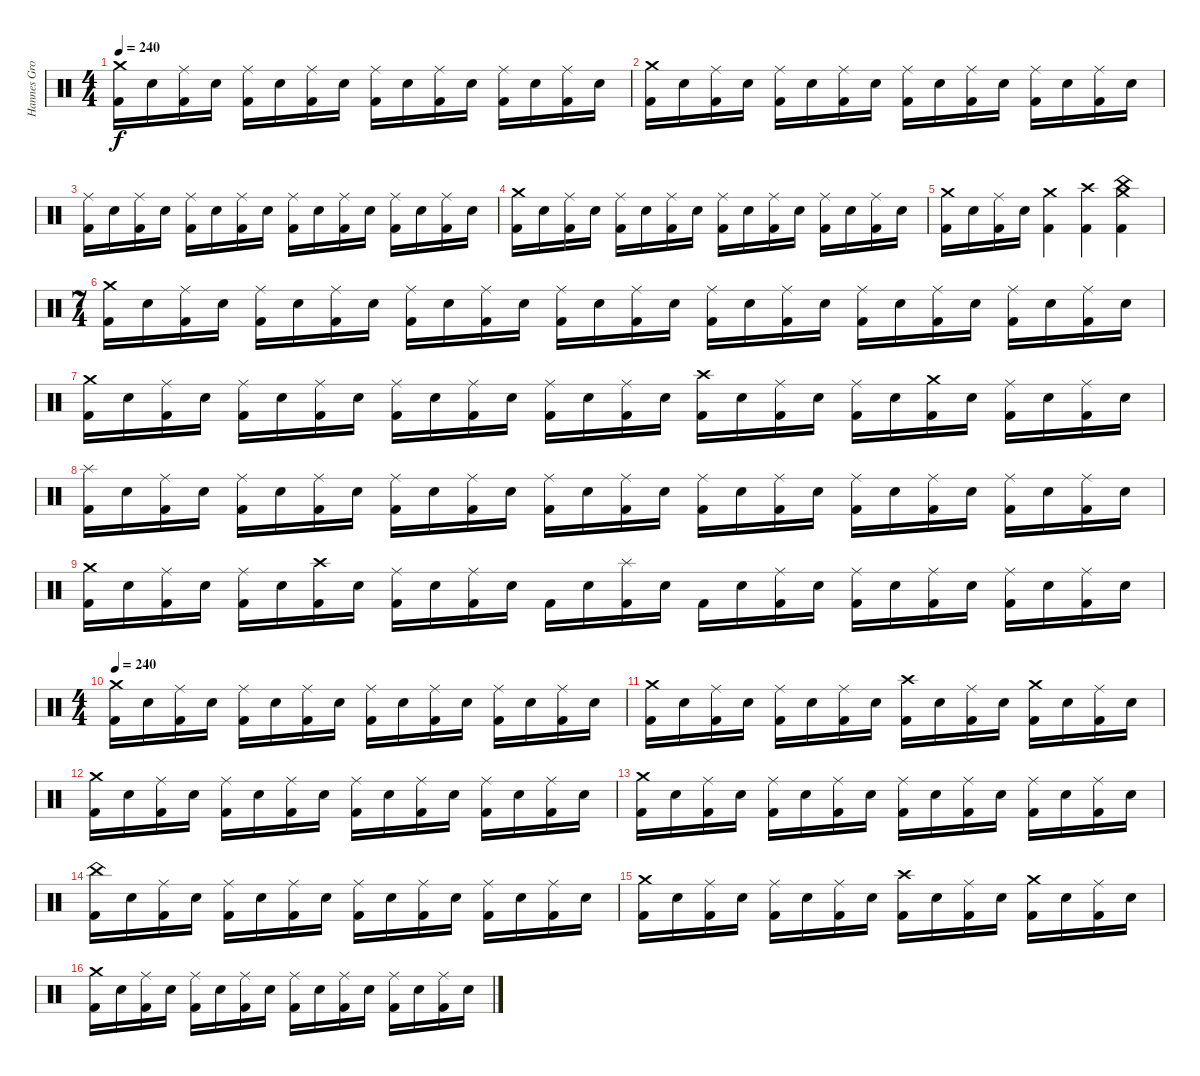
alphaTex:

\track ("Hannes Grossmann" "Hannes Gro") {instrument percussion}
\staff {score}
\articulation defaults
\ts (4 4)
\tempo 240
\clef neutral
\ks c
("Crash medium (hit)" "Kick (hit) 2").16{dy f} "Electric Snare (hit)".16 ("Ride (middle)" "Kick (hit) 2").16 "Electric Snare (hit)".16 ("Ride (middle)" "Kick (hit) 2").16 "Electric Snare (hit)".16 ("Ride (middle)" "Kick (hit) 2").16 "Electric Snare (hit)".16 ("Ride (middle)" "Kick (hit) 2").16 "Electric Snare (hit)".16 ("Ride (middle)" "Kick (hit) 2").16 "Electric Snare (hit)".16 ("Ride (middle)" "Kick (hit) 2").16 "Electric Snare (hit)".16 ("Ride (middle)" "Kick (hit) 2").16 "Electric Snare (hit)".16 |
("Crash medium (hit)" "Kick (hit) 2").16 "Electric Snare (hit)".16 ("Ride (middle)" "Kick (hit) 2").16 "Electric Snare (hit)".16 ("Ride (middle)" "Kick (hit) 2").16 "Electric Snare (hit)".16 ("Ride (middle)" "Kick (hit) 2").16 "Electric Snare (hit)".16 ("Ride (middle)" "Kick (hit) 2").16 "Electric Snare (hit)".16 ("Ride (middle)" "Kick (hit) 2").16 "Electric Snare (hit)".16 ("Ride (middle)" "Kick (hit) 2").16 "Electric Snare (hit)".16 ("Ride (middle)" "Kick (hit) 2").16 "Electric Snare (hit)".16 |
("Ride (middle)" "Kick (hit) 2").16 "Electric Snare (hit)".16 ("Ride (middle)" "Kick (hit) 2").16 "Electric Snare (hit)".16 ("Ride (middle)" "Kick (hit) 2").16 "Electric Snare (hit)".16 ("Ride (middle)" "Kick (hit) 2").16 "Electric Snare (hit)".16 ("Ride (middle)" "Kick (hit) 2").16 "Electric Snare (hit)".16 ("Ride (middle)" "Kick (hit) 2").16 "Electric Snare (hit)".16 ("Ride (middle)" "Kick (hit) 2").16 "Electric Snare (hit)".16 ("Ride (middle)" "Kick (hit) 2").16 "Electric Snare (hit)".16 |
("Crash medium (hit)" "Kick (hit) 2").16 "Electric Snare (hit)".16 ("Ride (middle)" "Kick (hit) 2").16 "Electric Snare (hit)".16 ("Ride (middle)" "Kick (hit) 2").16 "Electric Snare (hit)".16 ("Ride (middle)" "Kick (hit) 2").16 "Electric Snare (hit)".16 ("Ride (middle)" "Kick (hit) 2").16 "Electric Snare (hit)".16 ("Ride (middle)" "Kick (hit) 2").16 "Electric Snare (hit)".16 ("Ride (middle)" "Kick (hit) 2").16 "Electric Snare (hit)".16 ("Ride (middle)" "Kick (hit) 2").16 "Electric Snare (hit)".16 |
("Crash medium (hit)" "Kick (hit) 2").16 "Electric Snare (hit)".16 ("Ride (middle)" "Kick (hit) 2").16 "Electric Snare (hit)".16 ("Crash medium (hit)" "Kick (hit) 2").4 ("Crash high (hit)" "Kick (hit) 2").4 ("Crash medium (hit)" "China (hit)" "Kick (hit) 2").4 |
\ts (7 4)
("Crash medium (hit)" "Kick (hit) 2").16 "Electric Snare (hit)".16 ("Ride (middle)" "Kick (hit) 2").16 "Electric Snare (hit)".16 ("Ride (middle)" "Kick (hit) 2").16 "Electric Snare (hit)".16 ("Ride (middle)" "Kick (hit) 2").16 "Electric Snare (hit)".16 ("Ride (middle)" "Kick (hit) 2").16 "Electric Snare (hit)".16 ("Ride (middle)" "Kick (hit) 2").16 "Electric Snare (hit)".16 ("Ride (middle)" "Kick (hit) 2").16 "Electric Snare (hit)".16 ("Ride (middle)" "Kick (hit) 2").16 "Electric Snare (hit)".16 ("Ride (middle)" "Kick (hit) 2").16 "Electric Snare (hit)".16 ("Ride (middle)" "Kick (hit) 2").16 "Electric Snare (hit)".16 ("Ride (middle)" "Kick (hit) 2").16 "Electric Snare (hit)".16 ("Ride (middle)" "Kick (hit) 2").16 "Electric Snare (hit)".16 ("Ride (middle)" "Kick (hit) 2").16 "Electric Snare (hit)".16 ("Ride (middle)" "Kick (hit) 2").16 "Electric Snare (hit)".16 |
("Crash medium (hit)" "Kick (hit) 2").16 "Electric Snare (hit)".16 ("Ride (middle)" "Kick (hit) 2").16 "Electric Snare (hit)".16 ("Ride (middle)" "Kick (hit) 2").16 "Electric Snare (hit)".16 ("Ride (middle)" "Kick (hit) 2").16 "Electric Snare (hit)".16 ("Ride (middle)" "Kick (hit) 2").16 "Electric Snare (hit)".16 ("Ride (middle)" "Kick (hit) 2").16 "Electric Snare (hit)".16 ("Ride (middle)" "Kick (hit) 2").16 "Electric Snare (hit)".16 ("Ride (middle)" "Kick (hit) 2").16 "Electric Snare (hit)".16 ("Crash high (hit)" "Kick (hit) 2").16 "Electric Snare (hit)".16 ("Ride (middle)" "Kick (hit) 2").16 "Electric Snare (hit)".16 ("Ride (middle)" "Kick (hit) 2").16 "Electric Snare (hit)".16 ("Crash medium (hit)" "Kick (hit) 2").16 "Electric Snare (hit)".16 ("Ride (middle)" "Kick (hit) 2").16 "Electric Snare (hit)".16 ("Ride (middle)" "Kick (hit) 2").16 "Electric Snare (hit)".16 |
("Splash (hit)" "Kick (hit) 2").16 "Electric Snare (hit)".16 ("Ride (middle)" "Kick (hit) 2").16 "Electric Snare (hit)".16 ("Ride (middle)" "Kick (hit) 2").16 "Electric Snare (hit)".16 ("Ride (middle)" "Kick (hit) 2").16 "Electric Snare (hit)".16 ("Ride (middle)" "Kick (hit) 2").16 "Electric Snare (hit)".16 ("Ride (middle)" "Kick (hit) 2").16 "Electric Snare (hit)".16 ("Ride (middle)" "Kick (hit) 2").16 "Electric Snare (hit)".16 ("Ride (middle)" "Kick (hit) 2").16 "Electric Snare (hit)".16 ("Ride (middle)" "Kick (hit) 2").16 "Electric Snare (hit)".16 ("Ride (middle)" "Kick (hit) 2").16 "Electric Snare (hit)".16 ("Ride (middle)" "Kick (hit) 2").16 "Electric Snare (hit)".16 ("Ride (middle)" "Kick (hit) 2").16 "Electric Snare (hit)".16 ("Ride (middle)" "Kick (hit) 2").16 "Electric Snare (hit)".16 ("Ride (middle)" "Kick (hit) 2").16 "Electric Snare (hit)".16 |
("Crash medium (hit)" "Kick (hit) 2").16 "Electric Snare (hit)".16 ("Ride (middle)" "Kick (hit) 2").16 "Electric Snare (hit)".16 ("Ride (middle)" "Kick (hit) 2").16 "Electric Snare (hit)".16 ("Crash high (hit)" "Kick (hit) 2").16 "Electric Snare (hit)".16 ("Ride (middle)" "Kick (hit) 2").16 "Electric Snare (hit)".16 ("Ride (middle)" "Kick (hit) 2").16 "Electric Snare (hit)".16 "Kick (hit) 2".16 "Electric Snare (hit)".16 ("Splash (hit)" "Kick (hit) 2").16 "Electric Snare (hit)".16 "Kick (hit) 2".16 "Electric Snare (hit)".16 ("Ride (middle)" "Kick (hit) 2").16 "Electric Snare (hit)".16 ("Ride (middle)" "Kick (hit) 2").16 "Electric Snare (hit)".16 ("Ride (middle)" "Kick (hit) 2").16 "Electric Snare (hit)".16 ("Ride (middle)" "Kick (hit) 2").16 "Electric Snare (hit)".16 ("Ride (middle)" "Kick (hit) 2").16 "Electric Snare (hit)".16 |
\ts (4 4)
\tempo 240
("Crash medium (hit)" "Kick (hit) 2").16 "Electric Snare (hit)".16 ("Ride (middle)" "Kick (hit) 2").16 "Electric Snare (hit)".16 ("Ride (middle)" "Kick (hit) 2").16 "Electric Snare (hit)".16 ("Ride (middle)" "Kick (hit) 2").16 "Electric Snare (hit)".16 ("Ride (middle)" "Kick (hit) 2").16 "Electric Snare (hit)".16 ("Ride (middle)" "Kick (hit) 2").16 "Electric Snare (hit)".16 ("Ride (middle)" "Kick (hit) 2").16 "Electric Snare (hit)".16 ("Ride (middle)" "Kick (hit) 2").16 "Electric Snare (hit)".16 |
("Crash medium (hit)" "Kick (hit) 2").16 "Electric Snare (hit)".16 ("Ride (middle)" "Kick (hit) 2").16 "Electric Snare (hit)".16 ("Ride (middle)" "Kick (hit) 2").16 "Electric Snare (hit)".16 ("Ride (middle)" "Kick (hit) 2").16 "Electric Snare (hit)".16 ("Crash high (hit)" "Kick (hit) 2").16 "Electric Snare (hit)".16 ("Ride (middle)" "Kick (hit) 2").16 "Electric Snare (hit)".16 ("Crash medium (hit)" "Kick (hit) 2").16 "Electric Snare (hit)".16 ("Ride (middle)" "Kick (hit) 2").16 "Electric Snare (hit)".16 |
("Crash medium (hit)" "Kick (hit) 2").16 "Electric Snare (hit)".16 ("Ride (middle)" "Kick (hit) 2").16 "Electric Snare (hit)".16 ("Ride (middle)" "Kick (hit) 2").16 "Electric Snare (hit)".16 ("Ride (middle)" "Kick (hit) 2").16 "Electric Snare (hit)".16 ("Ride (middle)" "Kick (hit) 2").16 "Electric Snare (hit)".16 ("Ride (middle)" "Kick (hit) 2").16 "Electric Snare (hit)".16 ("Ride (middle)" "Kick (hit) 2").16 "Electric Snare (hit)".16 ("Ride (middle)" "Kick (hit) 2").16 "Electric Snare (hit)".16 |
("Crash medium (hit)" "Kick (hit) 2").16 "Electric Snare (hit)".16 ("Ride (middle)" "Kick (hit) 2").16 "Electric Snare (hit)".16 ("Ride (middle)" "Kick (hit) 2").16 "Electric Snare (hit)".16 ("Ride (middle)" "Kick (hit) 2").16 "Electric Snare (hit)".16 ("Ride (middle)" "Kick (hit) 2").16 "Electric Snare (hit)".16 ("Ride (middle)" "Kick (hit) 2").16 "Electric Snare (hit)".16 ("Ride (middle)" "Kick (hit) 2").16 "Electric Snare (hit)".16 ("Ride (middle)" "Kick (hit) 2").16 "Electric Snare (hit)".16 |
("China (hit)" "Kick (hit) 2").16 "Electric Snare (hit)".16 ("Ride (middle)" "Kick (hit) 2").16 "Electric Snare (hit)".16 ("Ride (middle)" "Kick (hit) 2").16 "Electric Snare (hit)".16 ("Ride (middle)" "Kick (hit) 2").16 "Electric Snare (hit)".16 ("Ride (middle)" "Kick (hit) 2").16 "Electric Snare (hit)".16 ("Ride (middle)" "Kick (hit) 2").16 "Electric Snare (hit)".16 ("Ride (middle)" "Kick (hit) 2").16 "Electric Snare (hit)".16 ("Ride (middle)" "Kick (hit) 2").16 "Electric Snare (hit)".16 |
("Crash medium (hit)" "Kick (hit) 2").16 "Electric Snare (hit)".16 ("Ride (middle)" "Kick (hit) 2").16 "Electric Snare (hit)".16 ("Ride (middle)" "Kick (hit) 2").16 "Electric Snare (hit)".16 ("Ride (middle)" "Kick (hit) 2").16 "Electric Snare (hit)".16 ("Crash high (hit)" "Kick (hit) 2").16 "Electric Snare (hit)".16 ("Ride (middle)" "Kick (hit) 2").16 "Electric Snare (hit)".16 ("Crash medium (hit)" "Kick (hit) 2").16 "Electric Snare (hit)".16 ("Ride (middle)" "Kick (hit) 2").16 "Electric Snare (hit)".16 |
("Crash medium (hit)" "Kick (hit) 2").16 "Electric Snare (hit)".16 ("Ride (middle)" "Kick (hit) 2").16 "Electric Snare (hit)".16 ("Ride (middle)" "Kick (hit) 2").16 "Electric Snare (hit)".16 ("Ride (middle)" "Kick (hit) 2").16 "Electric Snare (hit)".16 ("Ride (middle)" "Kick (hit) 2").16 "Electric Snare (hit)".16 ("Ride (middle)" "Kick (hit) 2").16 "Electric Snare (hit)".16 ("Ride (middle)" "Kick (hit) 2").16 "Electric Snare (hit)".16 ("Ride (middle)" "Kick (hit) 2").16 "Electric Snare (hit)".16
